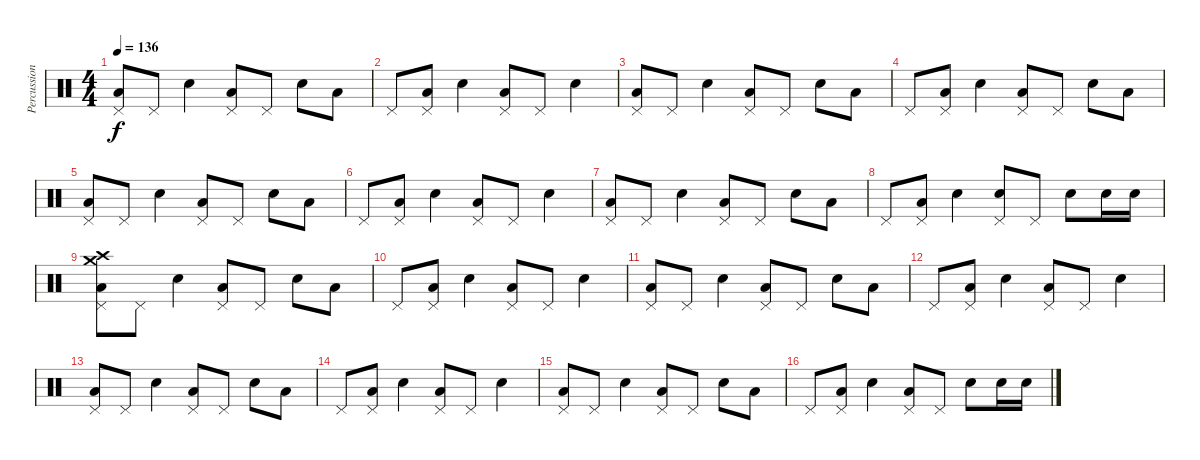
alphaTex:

\track ("Percussions" "Percussion") {instrument percussion}
\staff {score}
\articulation defaults
\ts (4 4)
\tempo 136
\clef neutral
\ks c
("Low Floor Tom (hit)" "Pedal Hi-Hat (hit)").8{dy f} "Pedal Hi-Hat (hit)".8 "Snare (hit) 2".4 ("Low Floor Tom (hit)" "Pedal Hi-Hat (hit)").8 "Pedal Hi-Hat (hit)".8 "Snare (hit) 2".8 "Low Floor Tom (hit)".8 |
"Pedal Hi-Hat (hit)".8 ("Low Floor Tom (hit)" "Pedal Hi-Hat (hit)").8 "Snare (hit) 2".4 ("Low Floor Tom (hit)" "Pedal Hi-Hat (hit)").8 "Pedal Hi-Hat (hit)".8 "Snare (hit) 2".4 |
("Low Floor Tom (hit)" "Pedal Hi-Hat (hit)").8 "Pedal Hi-Hat (hit)".8 "Snare (hit) 2".4 ("Low Floor Tom (hit)" "Pedal Hi-Hat (hit)").8 "Pedal Hi-Hat (hit)".8 "Snare (hit) 2".8 "Low Floor Tom (hit)".8 |
"Pedal Hi-Hat (hit)".8 ("Low Floor Tom (hit)" "Pedal Hi-Hat (hit)").8 "Snare (hit) 2".4 ("Low Floor Tom (hit)" "Pedal Hi-Hat (hit)").8 "Pedal Hi-Hat (hit)".8 "Snare (hit) 2".8 "Low Floor Tom (hit)".8 |
("Low Floor Tom (hit)" "Pedal Hi-Hat (hit)").8 "Pedal Hi-Hat (hit)".8 "Snare (hit) 2".4 ("Low Floor Tom (hit)" "Pedal Hi-Hat (hit)").8 "Pedal Hi-Hat (hit)".8 "Snare (hit) 2".8 "Low Floor Tom (hit)".8 |
"Pedal Hi-Hat (hit)".8 ("Low Floor Tom (hit)" "Pedal Hi-Hat (hit)").8 "Snare (hit) 2".4 ("Low Floor Tom (hit)" "Pedal Hi-Hat (hit)").8 "Pedal Hi-Hat (hit)".8 "Snare (hit) 2".4 |
("Low Floor Tom (hit)" "Pedal Hi-Hat (hit)").8 "Pedal Hi-Hat (hit)".8 "Snare (hit) 2".4 ("Low Floor Tom (hit)" "Pedal Hi-Hat (hit)").8 "Pedal Hi-Hat (hit)".8 "Snare (hit) 2".8 "Low Floor Tom (hit)".8 |
"Pedal Hi-Hat (hit)".8 ("Low Floor Tom (hit)" "Pedal Hi-Hat (hit)").8 "Snare (hit) 2".4 ("Snare (hit) 2" "Pedal Hi-Hat (hit)").8 "Pedal Hi-Hat (hit)".8 "Snare (hit) 2".8 "Snare (hit) 2".16 "Snare (hit) 2".16 |
("Low Floor Tom (hit)" "Pedal Hi-Hat (hit)" "Crash medium (hit)" "Crash high (hit)").8 "Pedal Hi-Hat (hit)".8 "Snare (hit) 2".4 ("Low Floor Tom (hit)" "Pedal Hi-Hat (hit)").8 "Pedal Hi-Hat (hit)".8 "Snare (hit) 2".8 "Low Floor Tom (hit)".8 |
"Pedal Hi-Hat (hit)".8 ("Low Floor Tom (hit)" "Pedal Hi-Hat (hit)").8 "Snare (hit) 2".4 ("Low Floor Tom (hit)" "Pedal Hi-Hat (hit)").8 "Pedal Hi-Hat (hit)".8 "Snare (hit) 2".4 |
("Low Floor Tom (hit)" "Pedal Hi-Hat (hit)").8 "Pedal Hi-Hat (hit)".8 "Snare (hit) 2".4 ("Low Floor Tom (hit)" "Pedal Hi-Hat (hit)").8 "Pedal Hi-Hat (hit)".8 "Snare (hit) 2".8 "Low Floor Tom (hit)".8 |
"Pedal Hi-Hat (hit)".8 ("Low Floor Tom (hit)" "Pedal Hi-Hat (hit)").8 "Snare (hit) 2".4 ("Low Floor Tom (hit)" "Pedal Hi-Hat (hit)").8 "Pedal Hi-Hat (hit)".8 "Snare (hit) 2".4 |
("Low Floor Tom (hit)" "Pedal Hi-Hat (hit)").8 "Pedal Hi-Hat (hit)".8 "Snare (hit) 2".4 ("Low Floor Tom (hit)" "Pedal Hi-Hat (hit)").8 "Pedal Hi-Hat (hit)".8 "Snare (hit) 2".8 "Low Floor Tom (hit)".8 |
"Pedal Hi-Hat (hit)".8 ("Low Floor Tom (hit)" "Pedal Hi-Hat (hit)").8 "Snare (hit) 2".4 ("Low Floor Tom (hit)" "Pedal Hi-Hat (hit)").8 "Pedal Hi-Hat (hit)".8 "Snare (hit) 2".4 |
("Low Floor Tom (hit)" "Pedal Hi-Hat (hit)").8 "Pedal Hi-Hat (hit)".8 "Snare (hit) 2".4 ("Low Floor Tom (hit)" "Pedal Hi-Hat (hit)").8 "Pedal Hi-Hat (hit)".8 "Snare (hit) 2".8 "Low Floor Tom (hit)".8 |
"Pedal Hi-Hat (hit)".8 ("Low Floor Tom (hit)" "Pedal Hi-Hat (hit)").8 "Snare (hit) 2".4 ("Low Floor Tom (hit)" "Pedal Hi-Hat (hit)").8 "Pedal Hi-Hat (hit)".8 "Snare (hit) 2".8 "Snare (hit) 2".16 "Snare (hit) 2".16
